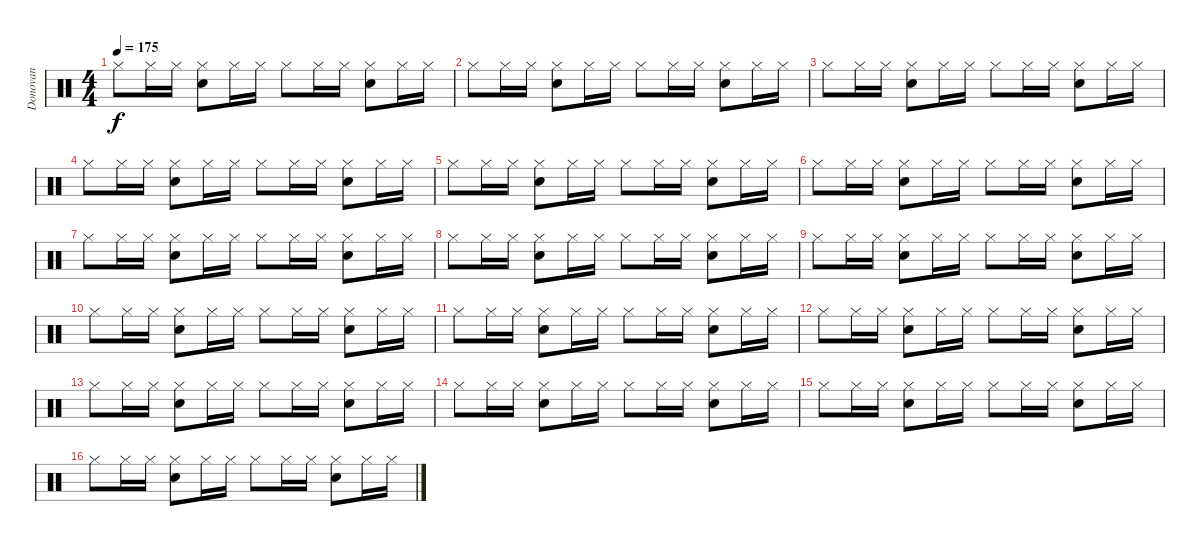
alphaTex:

\track ("Donovan" "Donovan") {instrument percussion}
\staff {score}
\articulation defaults
\ts (4 4)
\tempo 175
\clef neutral
\ks c "Hi-Hat (closed)".8{dy f} "Hi-Hat (closed)".16 "Hi-Hat (closed)".16
("Hi-Hat (closed)" "Snare (hit) 2").8 "Hi-Hat (closed)".16 "Hi-Hat (closed)".16 "Hi-Hat (closed)".8 "Hi-Hat (closed)".16 "Hi-Hat (closed)".16 ("Hi-Hat (closed)" "Snare (hit) 2").8 "Hi-Hat (closed)".16 "Hi-Hat (closed)".16 |
"Hi-Hat (closed)".8 "Hi-Hat (closed)".16 "Hi-Hat (closed)".16 ("Hi-Hat (closed)" "Snare (hit) 2").8 "Hi-Hat (closed)".16 "Hi-Hat (closed)".16 "Hi-Hat (closed)".8 "Hi-Hat (closed)".16 "Hi-Hat (closed)".16 ("Hi-Hat (closed)" "Snare (hit) 2").8 "Hi-Hat (closed)".16 "Hi-Hat (closed)".16 |
"Hi-Hat (closed)".8 "Hi-Hat (closed)".16 "Hi-Hat (closed)".16 ("Hi-Hat (closed)" "Snare (hit) 2").8 "Hi-Hat (closed)".16 "Hi-Hat (closed)".16 "Hi-Hat (closed)".8 "Hi-Hat (closed)".16 "Hi-Hat (closed)".16 ("Hi-Hat (closed)" "Snare (hit) 2").8 "Hi-Hat (closed)".16 "Hi-Hat (closed)".16 |
"Hi-Hat (closed)".8 "Hi-Hat (closed)".16 "Hi-Hat (closed)".16 ("Hi-Hat (closed)" "Snare (hit) 2").8 "Hi-Hat (closed)".16 "Hi-Hat (closed)".16 "Hi-Hat (closed)".8 "Hi-Hat (closed)".16 "Hi-Hat (closed)".16 ("Hi-Hat (closed)" "Snare (hit) 2").8 "Hi-Hat (closed)".16 "Hi-Hat (closed)".16 |
"Hi-Hat (closed)".8 "Hi-Hat (closed)".16 "Hi-Hat (closed)".16 ("Hi-Hat (closed)" "Snare (hit) 2").8 "Hi-Hat (closed)".16 "Hi-Hat (closed)".16 "Hi-Hat (closed)".8 "Hi-Hat (closed)".16 "Hi-Hat (closed)".16 ("Hi-Hat (closed)" "Snare (hit) 2").8 "Hi-Hat (closed)".16 "Hi-Hat (closed)".16 |
"Hi-Hat (closed)".8 "Hi-Hat (closed)".16 "Hi-Hat (closed)".16 ("Hi-Hat (closed)" "Snare (hit) 2").8 "Hi-Hat (closed)".16 "Hi-Hat (closed)".16 "Hi-Hat (closed)".8 "Hi-Hat (closed)".16 "Hi-Hat (closed)".16 ("Hi-Hat (closed)" "Snare (hit) 2").8 "Hi-Hat (closed)".16 "Hi-Hat (closed)".16 |
"Hi-Hat (closed)".8 "Hi-Hat (closed)".16 "Hi-Hat (closed)".16 ("Hi-Hat (closed)" "Snare (hit) 2").8 "Hi-Hat (closed)".16 "Hi-Hat (closed)".16 "Hi-Hat (closed)".8 "Hi-Hat (closed)".16 "Hi-Hat (closed)".16 ("Hi-Hat (closed)" "Snare (hit) 2").8 "Hi-Hat (closed)".16 "Hi-Hat (closed)".16 |
"Hi-Hat (closed)".8 "Hi-Hat (closed)".16 "Hi-Hat (closed)".16 ("Hi-Hat (closed)" "Snare (hit) 2").8 "Hi-Hat (closed)".16 "Hi-Hat (closed)".16 "Hi-Hat (closed)".8 "Hi-Hat (closed)".16 "Hi-Hat (closed)".16 ("Hi-Hat (closed)" "Snare (hit) 2").8 "Hi-Hat (closed)".16 "Hi-Hat (closed)".16 |
"Hi-Hat (closed)".8 "Hi-Hat (closed)".16 "Hi-Hat (closed)".16 ("Hi-Hat (closed)" "Snare (hit) 2").8 "Hi-Hat (closed)".16 "Hi-Hat (closed)".16 "Hi-Hat (closed)".8 "Hi-Hat (closed)".16 "Hi-Hat (closed)".16 ("Hi-Hat (closed)" "Snare (hit) 2").8 "Hi-Hat (closed)".16 "Hi-Hat (closed)".16 |
"Hi-Hat (closed)".8 "Hi-Hat (closed)".16 "Hi-Hat (closed)".16 ("Hi-Hat (closed)" "Snare (hit) 2").8 "Hi-Hat (closed)".16 "Hi-Hat (closed)".16 "Hi-Hat (closed)".8 "Hi-Hat (closed)".16 "Hi-Hat (closed)".16 ("Hi-Hat (closed)" "Snare (hit) 2").8 "Hi-Hat (closed)".16 "Hi-Hat (closed)".16 |
"Hi-Hat (closed)".8 "Hi-Hat (closed)".16 "Hi-Hat (closed)".16 ("Hi-Hat (closed)" "Snare (hit) 2").8 "Hi-Hat (closed)".16 "Hi-Hat (closed)".16 "Hi-Hat (closed)".8 "Hi-Hat (closed)".16 "Hi-Hat (closed)".16 ("Hi-Hat (closed)" "Snare (hit) 2").8 "Hi-Hat (closed)".16 "Hi-Hat (closed)".16 |
"Hi-Hat (closed)".8 "Hi-Hat (closed)".16 "Hi-Hat (closed)".16 ("Hi-Hat (closed)" "Snare (hit) 2").8 "Hi-Hat (closed)".16 "Hi-Hat (closed)".16 "Hi-Hat (closed)".8 "Hi-Hat (closed)".16 "Hi-Hat (closed)".16 ("Hi-Hat (closed)" "Snare (hit) 2").8 "Hi-Hat (closed)".16 "Hi-Hat (closed)".16 |
"Hi-Hat (closed)".8 "Hi-Hat (closed)".16 "Hi-Hat (closed)".16 ("Hi-Hat (closed)" "Snare (hit) 2").8 "Hi-Hat (closed)".16 "Hi-Hat (closed)".16 "Hi-Hat (closed)".8 "Hi-Hat (closed)".16 "Hi-Hat (closed)".16 ("Hi-Hat (closed)" "Snare (hit) 2").8 "Hi-Hat (closed)".16 "Hi-Hat (closed)".16 |
"Hi-Hat (closed)".8 "Hi-Hat (closed)".16 "Hi-Hat (closed)".16 ("Hi-Hat (closed)" "Snare (hit) 2").8 "Hi-Hat (closed)".16 "Hi-Hat (closed)".16 "Hi-Hat (closed)".8 "Hi-Hat (closed)".16 "Hi-Hat (closed)".16 ("Hi-Hat (closed)" "Snare (hit) 2").8 "Hi-Hat (closed)".16 "Hi-Hat (closed)".16 |
"Hi-Hat (closed)".8 "Hi-Hat (closed)".16 "Hi-Hat (closed)".16 ("Hi-Hat (closed)" "Snare (hit) 2").8 "Hi-Hat (closed)".16 "Hi-Hat (closed)".16 "Hi-Hat (closed)".8 "Hi-Hat (closed)".16 "Hi-Hat (closed)".16 ("Hi-Hat (closed)" "Snare (hit) 2").8 "Hi-Hat (closed)".16 "Hi-Hat (closed)".16 |
"Hi-Hat (closed)".8 "Hi-Hat (closed)".16 "Hi-Hat (closed)".16 ("Hi-Hat (closed)" "Snare (hit) 2").8 "Hi-Hat (closed)".16 "Hi-Hat (closed)".16 "Hi-Hat (closed)".8 "Hi-Hat (closed)".16 "Hi-Hat (closed)".16 ("Hi-Hat (closed)" "Snare (hit) 2").8 "Hi-Hat (closed)".16 "Hi-Hat (closed)".16
